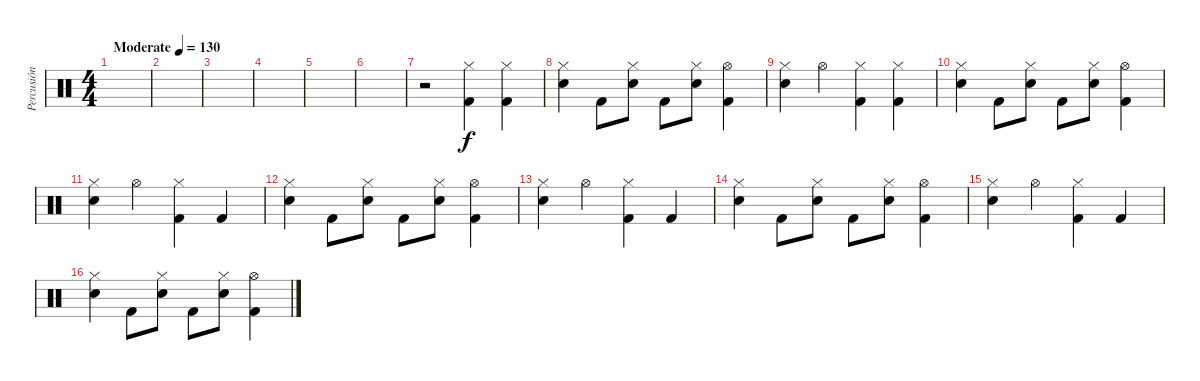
\track ("Percusión" "Percusión") {instrument percussion}
\staff {score}
\articulation defaults
\ts (4 4)
\tempo (130 "Moderate")
\clef neutral
\ks c
|
|
|
|
|
|
r.2 ("Hi-Hat (closed)" "Kick (hit) 2").4 ("Hi-Hat (closed)" "Kick (hit) 2").4 |
("Hi-Hat (closed)" "Electric Snare (hit)").4 "Kick (hit) 2".8 ("Hi-Hat (closed)" "Electric Snare (hit)").8 "Kick (hit) 2".8 ("Hi-Hat (closed)" "Electric Snare (hit)").8 ("Hi-Hat (open)" "Kick (hit) 2").4 |
("Hi-Hat (closed)" "Electric Snare (hit)").4 "Hi-Hat (open)".4 ("Hi-Hat (closed)" "Kick (hit) 2").4 ("Hi-Hat (closed)" "Kick (hit) 2").4 |
("Hi-Hat (closed)" "Electric Snare (hit)").4 "Kick (hit) 2".8 ("Hi-Hat (closed)" "Electric Snare (hit)").8 "Kick (hit) 2".8 ("Hi-Hat (closed)" "Electric Snare (hit)").8 ("Hi-Hat (open)" "Kick (hit) 2").4 |
("Hi-Hat (closed)" "Electric Snare (hit)").4 "Hi-Hat (open)".4 ("Hi-Hat (closed)" "Kick (hit) 2").4 "Kick (hit) 2".4 |
("Hi-Hat (closed)" "Electric Snare (hit)").4 "Kick (hit) 2".8 ("Hi-Hat (closed)" "Electric Snare (hit)").8 "Kick (hit) 2".8 ("Hi-Hat (closed)" "Electric Snare (hit)").8 ("Hi-Hat (open)" "Kick (hit) 2").4 |
("Hi-Hat (closed)" "Electric Snare (hit)").4 "Hi-Hat (open)".4 ("Hi-Hat (closed)" "Kick (hit) 2").4 "Kick (hit) 2".4 |
("Hi-Hat (closed)" "Electric Snare (hit)").4 "Kick (hit) 2".8 ("Hi-Hat (closed)" "Electric Snare (hit)").8 "Kick (hit) 2".8 ("Hi-Hat (closed)" "Electric Snare (hit)").8 ("Hi-Hat (open)" "Kick (hit) 2").4 |
("Hi-Hat (closed)" "Electric Snare (hit)").4 "Hi-Hat (open)".4 ("Hi-Hat (closed)" "Kick (hit) 2").4 "Kick (hit) 2".4 |
("Hi-Hat (closed)" "Electric Snare (hit)").4 "Kick (hit) 2".8 ("Hi-Hat (closed)" "Electric Snare (hit)").8 "Kick (hit) 2".8 ("Hi-Hat (closed)" "Electric Snare (hit)").8 ("Hi-Hat (open)" "Kick (hit) 2").4
